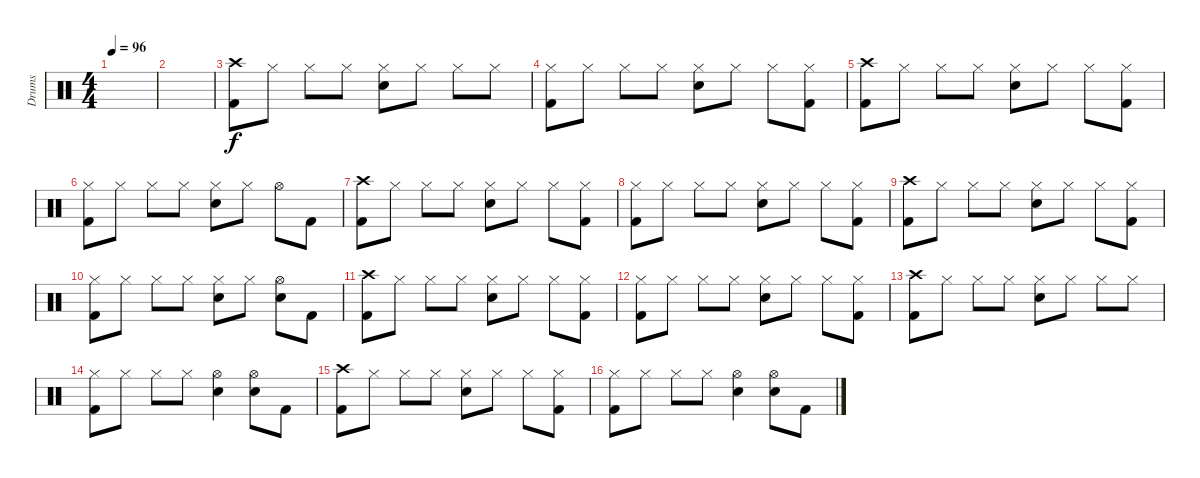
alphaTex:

\track ("Drums" "Drums") {instrument percussion}
\staff {score}
\articulation defaults
\ts (4 4)
\tempo 96
\clef neutral
\ks c
|
|
("Crash high (hit)" "Kick (hit) 2").8 "Hi-Hat (closed)".8 "Hi-Hat (closed)".8 "Hi-Hat (closed)".8 ("Hi-Hat (closed)" "Snare (hit) 2").8 "Hi-Hat (closed)".8 "Hi-Hat (closed)".8 "Hi-Hat (closed)".8 |
("Hi-Hat (closed)" "Kick (hit) 2").8 "Hi-Hat (closed)".8 "Hi-Hat (closed)".8 "Hi-Hat (closed)".8 ("Hi-Hat (closed)" "Snare (hit) 2").8 "Hi-Hat (closed)".8 "Hi-Hat (closed)".8 ("Hi-Hat (closed)" "Kick (hit) 2").8 |
("Crash high (hit)" "Kick (hit) 2").8 "Hi-Hat (closed)".8 "Hi-Hat (closed)".8 "Hi-Hat (closed)".8 ("Hi-Hat (closed)" "Snare (hit) 2").8 "Hi-Hat (closed)".8 "Hi-Hat (closed)".8 ("Hi-Hat (closed)" "Kick (hit) 2").8 |
("Hi-Hat (closed)" "Kick (hit) 2").8 "Hi-Hat (closed)".8 "Hi-Hat (closed)".8 "Hi-Hat (closed)".8 ("Hi-Hat (closed)" "Snare (hit) 2").8 "Hi-Hat (closed)".8 "Hi-Hat (open)".8 "Kick (hit) 2".8 |
("Crash high (hit)" "Kick (hit) 2").8 "Hi-Hat (closed)".8 "Hi-Hat (closed)".8 "Hi-Hat (closed)".8 ("Hi-Hat (closed)" "Snare (hit) 2").8 "Hi-Hat (closed)".8 "Hi-Hat (closed)".8 ("Hi-Hat (closed)" "Kick (hit) 2").8 |
("Hi-Hat (closed)" "Kick (hit) 2").8 "Hi-Hat (closed)".8 "Hi-Hat (closed)".8 "Hi-Hat (closed)".8 ("Hi-Hat (closed)" "Snare (hit) 2").8 "Hi-Hat (closed)".8 "Hi-Hat (closed)".8 ("Hi-Hat (closed)" "Kick (hit) 2").8 |
("Crash high (hit)" "Kick (hit) 2").8 "Hi-Hat (closed)".8 "Hi-Hat (closed)".8 "Hi-Hat (closed)".8 ("Hi-Hat (closed)" "Snare (hit) 2").8 "Hi-Hat (closed)".8 "Hi-Hat (closed)".8 ("Hi-Hat (closed)" "Kick (hit) 2").8 |
("Hi-Hat (closed)" "Kick (hit) 2").8 "Hi-Hat (closed)".8 "Hi-Hat (closed)".8 "Hi-Hat (closed)".8 ("Hi-Hat (closed)" "Snare (hit) 2").8 "Hi-Hat (closed)".8 ("Hi-Hat (open)" "Snare (hit) 2").8 "Kick (hit) 2".8 |
("Crash high (hit)" "Kick (hit) 2").8 "Hi-Hat (closed)".8 "Hi-Hat (closed)".8 "Hi-Hat (closed)".8 ("Hi-Hat (closed)" "Snare (hit) 2").8 "Hi-Hat (closed)".8 "Hi-Hat (closed)".8 ("Hi-Hat (closed)" "Kick (hit) 2").8 |
("Hi-Hat (closed)" "Kick (hit) 2").8 "Hi-Hat (closed)".8 "Hi-Hat (closed)".8 "Hi-Hat (closed)".8 ("Hi-Hat (closed)" "Snare (hit) 2").8 "Hi-Hat (closed)".8 "Hi-Hat (closed)".8 ("Hi-Hat (closed)" "Kick (hit) 2").8 |
("Crash high (hit)" "Kick (hit) 2").8 "Hi-Hat (closed)".8 "Hi-Hat (closed)".8 "Hi-Hat (closed)".8 ("Hi-Hat (closed)" "Snare (hit) 2").8 "Hi-Hat (closed)".8 "Hi-Hat (closed)".8 "Hi-Hat (closed)".8 |
("Hi-Hat (closed)" "Kick (hit) 2").8 "Hi-Hat (closed)".8 "Hi-Hat (closed)".8 "Hi-Hat (closed)".8 ("Hi-Hat (open)" "Snare (hit) 2").4 ("Hi-Hat (open)" "Snare (hit) 2").8 "Kick (hit) 2".8 |
("Crash high (hit)" "Kick (hit) 2").8 "Hi-Hat (closed)".8 "Hi-Hat (closed)".8 "Hi-Hat (closed)".8 ("Hi-Hat (closed)" "Snare (hit) 2").8 "Hi-Hat (closed)".8 "Hi-Hat (closed)".8 ("Hi-Hat (closed)" "Kick (hit) 2").8 |
("Hi-Hat (closed)" "Kick (hit) 2").8 "Hi-Hat (closed)".8 "Hi-Hat (closed)".8 "Hi-Hat (closed)".8 ("Hi-Hat (open)" "Snare (hit) 2").4 ("Hi-Hat (open)" "Snare (hit) 2").8 "Kick (hit) 2".8
